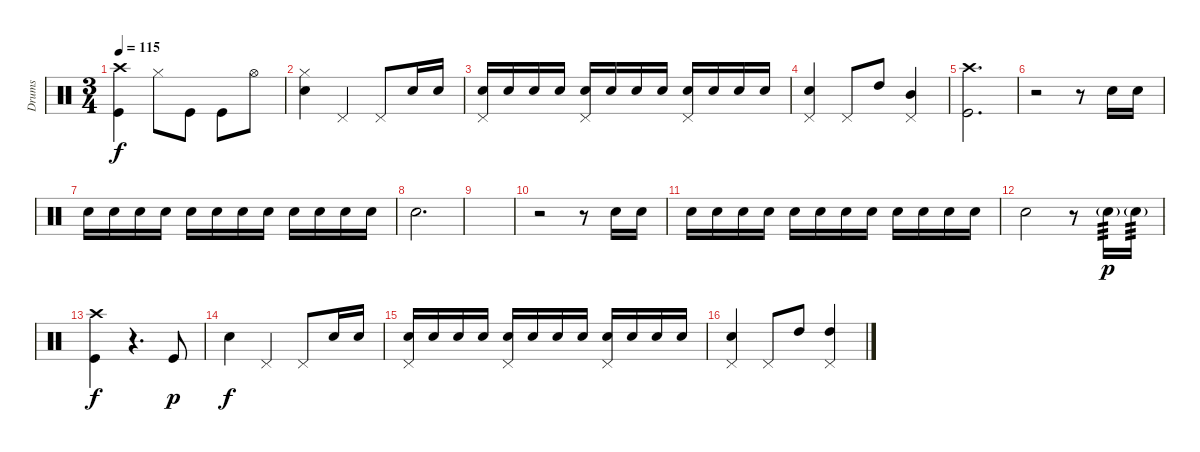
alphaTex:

\track ("Drums" "Drums") {instrument percussion}
\staff {score}
\articulation defaults
\ts (3 4)
\tempo 115
\clef neutral
\ks c
("Crash high (hit)" "Kick (hit)").4{dy f} "Hi-Hat (closed)".8 "Kick (hit)".8 "Kick (hit)".8 "Hi-Hat (open)".8 |
("Hi-Hat (closed)" "Snare (hit) 2").4 "Pedal Hi-Hat (hit)".4 "Pedal Hi-Hat (hit)".8 "Snare (hit) 2".16 "Snare (hit) 2".16 |
("Pedal Hi-Hat (hit)" "Snare (hit) 2").16 "Snare (hit) 2".16 "Snare (hit) 2".16 "Snare (hit) 2".16 ("Pedal Hi-Hat (hit)" "Snare (hit) 2").16 "Snare (hit) 2".16 "Snare (hit) 2".16 "Snare (hit) 2".16 ("Pedal Hi-Hat (hit)" "Snare (hit) 2").16 "Snare (hit) 2".16 "Snare (hit) 2".16 "Snare (hit) 2".16 |
("Pedal Hi-Hat (hit)" "Snare (hit) 2").4 "Pedal Hi-Hat (hit)".8 "High Tom (hit)".8 ("Pedal Hi-Hat (hit)" "Mid Tom (hit)").4 |
("Crash high (hit)" "Kick (hit)").2{d} |
r.2 r.8 "Snare (hit) 2".16 "Snare (hit) 2".16 |
"Snare (hit) 2".16 "Snare (hit) 2".16 "Snare (hit) 2".16 "Snare (hit) 2".16 "Snare (hit) 2".16 "Snare (hit) 2".16 "Snare (hit) 2".16 "Snare (hit) 2".16 "Snare (hit) 2".16 "Snare (hit) 2".16 "Snare (hit) 2".16 "Snare (hit) 2".16 |
"Snare (hit) 2".2{d} |
|
r.2 r.8 "Snare (hit) 2".16 "Snare (hit) 2".16 |
"Snare (hit) 2".16 "Snare (hit) 2".16 "Snare (hit) 2".16 "Snare (hit) 2".16 "Snare (hit) 2".16 "Snare (hit) 2".16 "Snare (hit) 2".16 "Snare (hit) 2".16 "Snare (hit) 2".16 "Snare (hit) 2".16 "Snare (hit) 2".16 "Snare (hit) 2".16 |
"Snare (hit) 2".2 r.8 "Snare (hit) 2"{g}.16{tp 3 dy p} "Snare (hit) 2"{g}.16{tp 3} |
("Crash high (hit)" "Kick (hit)").4{dy f} r.4{d} "Kick (hit)".8{dy p} |
"Snare (hit) 2".4{dy f} "Pedal Hi-Hat (hit)".4 "Pedal Hi-Hat (hit)".8 "Snare (hit) 2".16 "Snare (hit) 2".16 |
("Pedal Hi-Hat (hit)" "Snare (hit) 2").16 "Snare (hit) 2".16 "Snare (hit) 2".16 "Snare (hit) 2".16 ("Pedal Hi-Hat (hit)" "Snare (hit) 2").16 "Snare (hit) 2".16 "Snare (hit) 2".16 "Snare (hit) 2".16 ("Pedal Hi-Hat (hit)" "Snare (hit) 2").16 "Snare (hit) 2".16 "Snare (hit) 2".16 "Snare (hit) 2".16 |
("Pedal Hi-Hat (hit)" "Snare (hit) 2").4 "Pedal Hi-Hat (hit)".8 "High Tom (hit)".8 ("Pedal Hi-Hat (hit)" "High Tom (hit)").4
